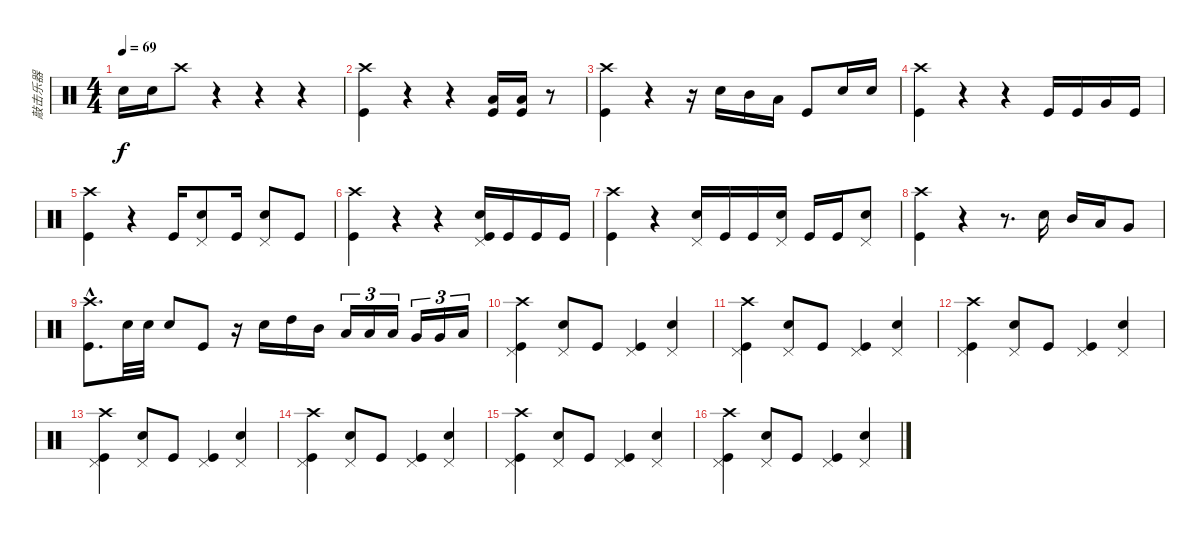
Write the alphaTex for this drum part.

\track ("敲击乐器" "敲击乐器") {instrument percussion}
\staff {score}
\articulation defaults
\ts (4 4)
\tempo 69
\clef neutral
\ks c "Metronome (bell)".16{dy f} "Metronome (bell)".16 "Crash high (hit)".8
r.4 r.4 r.4 |
("Crash high (hit)" "Kick (hit)").4 r.4 r.4 ("Low Tom (hit)" "Kick (hit)").16 ("Low Tom (hit)" "Kick (hit)").16 r.8 |
("Crash high (hit)" "Kick (hit)").4 r.4 r.16 "Metronome (bell)".16 "Mid Tom (hit)".16 "Low Tom (hit)".16 "Kick (hit)".8 "Metronome (bell)".16 "Metronome (bell)".16 |
("Crash high (hit)" "Kick (hit)").4 r.4 r.4 "Kick (hit)".16 "Kick (hit)".16 "Very Low Tom (hit)".16 "Kick (hit)".16 |
("Crash high (hit)" "Kick (hit)").4 r.4 "Kick (hit)".16 ("Pedal Hi-Hat (hit)" "Metronome (bell)").8 "Kick (hit)".16 ("Pedal Hi-Hat (hit)" "Metronome (bell)").8 "Kick (hit)".8 |
("Crash high (hit)" "Kick (hit)").4 r.4 r.4 ("Pedal Hi-Hat (hit)" "Metronome (bell)" "Kick (hit)").16 "Kick (hit)".16 "Kick (hit)".16 "Kick (hit)".16 |
("Crash high (hit)" "Kick (hit)").4 r.4 ("Pedal Hi-Hat (hit)" "Metronome (bell)").16 "Kick (hit)".16 "Kick (hit)".16 ("Pedal Hi-Hat (hit)" "Metronome (bell)").16 "Kick (hit)".16 "Kick (hit)".16 ("Pedal Hi-Hat (hit)" "Metronome (bell)").8 |
("Crash high (hit)" "Kick (hit)").4 r.4 r.8{d} "Metronome (bell)".16 "Mid Tom (hit)".16 "Low Tom (hit)".16 "Very Low Tom (hit)".8 |
("Crash high (hit)"{hac} "Kick (hit)"{hac}).8{d} "Metronome (bell)".32 "Metronome (bell)".32 "Metronome (bell)".8 "Kick (hit)".8 r.16 "Metronome (bell)".16 "High Tom (hit)".16 "Mid Tom (hit)".16 "Low Tom (hit)".16{tu (3 2)} "Low Tom (hit)".16{tu (3 2)} "Low Tom (hit)".16{tu (3 2)} "Very Low Tom (hit)".16{tu (3 2)} "Very Low Tom (hit)".16{tu (3 2)} "Low Floor Tom (hit)".16{tu (3 2)} |
("Crash high (hit)" "Pedal Hi-Hat (hit)" "Kick (hit)").4 ("Pedal Hi-Hat (hit)" "Metronome (bell)").8 "Kick (hit)".8 ("Pedal Hi-Hat (hit)" "Kick (hit)").4 ("Pedal Hi-Hat (hit)" "Metronome (bell)").4 |
("Crash high (hit)" "Pedal Hi-Hat (hit)" "Kick (hit)").4 ("Pedal Hi-Hat (hit)" "Metronome (bell)").8 "Kick (hit)".8 ("Pedal Hi-Hat (hit)" "Kick (hit)").4 ("Pedal Hi-Hat (hit)" "Metronome (bell)").4 |
("Crash high (hit)" "Pedal Hi-Hat (hit)" "Kick (hit)").4 ("Pedal Hi-Hat (hit)" "Metronome (bell)").8 "Kick (hit)".8 ("Pedal Hi-Hat (hit)" "Kick (hit)").4 ("Pedal Hi-Hat (hit)" "Metronome (bell)").4 |
("Crash high (hit)" "Pedal Hi-Hat (hit)" "Kick (hit)").4 ("Pedal Hi-Hat (hit)" "Metronome (bell)").8 "Kick (hit)".8 ("Pedal Hi-Hat (hit)" "Kick (hit)").4 ("Pedal Hi-Hat (hit)" "Metronome (bell)").4 |
("Crash high (hit)" "Pedal Hi-Hat (hit)" "Kick (hit)").4 ("Pedal Hi-Hat (hit)" "Metronome (bell)").8 "Kick (hit)".8 ("Pedal Hi-Hat (hit)" "Kick (hit)").4 ("Pedal Hi-Hat (hit)" "Metronome (bell)").4 |
("Crash high (hit)" "Pedal Hi-Hat (hit)" "Kick (hit)").4 ("Pedal Hi-Hat (hit)" "Metronome (bell)").8 "Kick (hit)".8 ("Pedal Hi-Hat (hit)" "Kick (hit)").4 ("Pedal Hi-Hat (hit)" "Metronome (bell)").4 |
("Crash high (hit)" "Pedal Hi-Hat (hit)" "Kick (hit)").4 ("Pedal Hi-Hat (hit)" "Metronome (bell)").8 "Kick (hit)".8 ("Pedal Hi-Hat (hit)" "Kick (hit)").4 ("Pedal Hi-Hat (hit)" "Metronome (bell)").4
